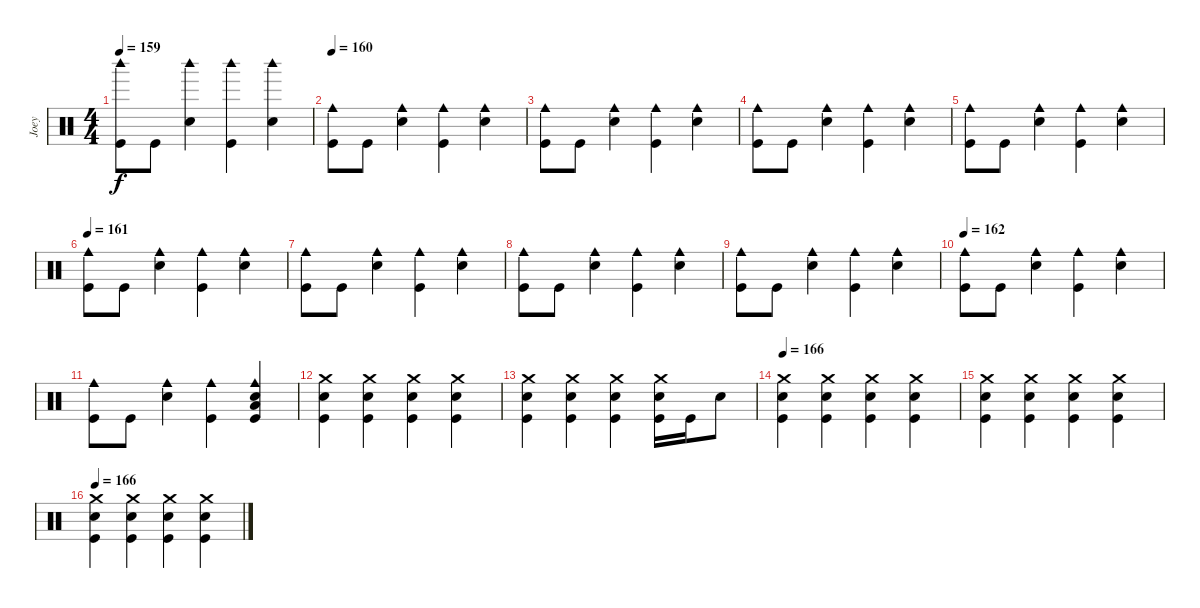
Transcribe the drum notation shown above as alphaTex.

\track ("Joey" "Joey") {instrument percussion}
\staff {score}
\articulation defaults
\ts (4 4)
\tempo 159
\clef neutral
\ks c
("Woodblock high (hit)" "Kick (hit)").8{dy f} "Kick (hit)".8 ("Woodblock high (hit)" "Electric Snare (hit)").4 ("Woodblock high (hit)" "Kick (hit)").4 ("Woodblock high (hit)" "Electric Snare (hit)").4 |
\tempo 160
("Cowbell medium (hit)" "Kick (hit)").8 "Kick (hit)".8 ("Cowbell medium (hit)" "Electric Snare (hit)").4 ("Cowbell medium (hit)" "Kick (hit)").4 ("Cowbell medium (hit)" "Electric Snare (hit)").4 |
("Cowbell medium (hit)" "Kick (hit)").8 "Kick (hit)".8 ("Cowbell medium (hit)" "Electric Snare (hit)").4 ("Cowbell medium (hit)" "Kick (hit)").4 ("Cowbell medium (hit)" "Electric Snare (hit)").4 |
("Cowbell medium (hit)" "Kick (hit)").8 "Kick (hit)".8 ("Cowbell medium (hit)" "Electric Snare (hit)").4 ("Cowbell medium (hit)" "Kick (hit)").4 ("Cowbell medium (hit)" "Electric Snare (hit)").4 |
("Cowbell medium (hit)" "Kick (hit)").8 "Kick (hit)".8 ("Cowbell medium (hit)" "Electric Snare (hit)").4 ("Cowbell medium (hit)" "Kick (hit)").4 ("Cowbell medium (hit)" "Electric Snare (hit)").4 |
\tempo 161
("Cowbell medium (hit)" "Kick (hit)").8 "Kick (hit)".8 ("Cowbell medium (hit)" "Electric Snare (hit)").4 ("Cowbell medium (hit)" "Kick (hit)").4 ("Cowbell medium (hit)" "Electric Snare (hit)").4 |
("Cowbell medium (hit)" "Kick (hit)").8 "Kick (hit)".8 ("Cowbell medium (hit)" "Electric Snare (hit)").4 ("Cowbell medium (hit)" "Kick (hit)").4 ("Cowbell medium (hit)" "Electric Snare (hit)").4 |
("Cowbell medium (hit)" "Kick (hit)").8 "Kick (hit)".8 ("Cowbell medium (hit)" "Electric Snare (hit)").4 ("Cowbell medium (hit)" "Kick (hit)").4 ("Cowbell medium (hit)" "Electric Snare (hit)").4 |
("Cowbell medium (hit)" "Kick (hit)").8 "Kick (hit)".8 ("Cowbell medium (hit)" "Electric Snare (hit)").4 ("Cowbell medium (hit)" "Kick (hit)").4 ("Cowbell medium (hit)" "Electric Snare (hit)").4 |
\tempo 162
("Cowbell medium (hit)" "Kick (hit)").8 "Kick (hit)".8 ("Cowbell medium (hit)" "Electric Snare (hit)").4 ("Cowbell medium (hit)" "Kick (hit)").4 ("Cowbell medium (hit)" "Electric Snare (hit)").4 |
("Cowbell medium (hit)" "Kick (hit)").8 "Kick (hit)".8 ("Cowbell medium (hit)" "Electric Snare (hit)").4 ("Cowbell medium (hit)" "Kick (hit)").4 ("Cowbell medium (hit)" "Low Floor Tom (hit)" "Electric Snare (hit)" "Kick (hit)").4 |
("Crash medium (hit)" "Kick (hit)" "Electric Snare (hit)").4 ("Crash medium (hit)" "Kick (hit)" "Electric Snare (hit)").4 ("Crash medium (hit)" "Kick (hit)" "Electric Snare (hit)").4 ("Crash medium (hit)" "Kick (hit)" "Electric Snare (hit)").4 |
("Crash medium (hit)" "Kick (hit)" "Electric Snare (hit)").4 ("Crash medium (hit)" "Kick (hit)" "Electric Snare (hit)").4 ("Crash medium (hit)" "Kick (hit)" "Electric Snare (hit)").4 ("Crash medium (hit)" "Kick (hit)" "Electric Snare (hit)").16 "Kick (hit)".16 "Electric Snare (hit)".8 |
\tempo 166
("Crash medium (hit)" "Kick (hit)" "Electric Snare (hit)").4 ("Crash medium (hit)" "Kick (hit)" "Electric Snare (hit)").4 ("Crash medium (hit)" "Kick (hit)" "Electric Snare (hit)").4 ("Crash medium (hit)" "Kick (hit)" "Electric Snare (hit)").4 |
("Crash medium (hit)" "Kick (hit)" "Electric Snare (hit)").4 ("Crash medium (hit)" "Kick (hit)" "Electric Snare (hit)").4 ("Crash medium (hit)" "Kick (hit)" "Electric Snare (hit)").4 ("Crash medium (hit)" "Kick (hit)" "Electric Snare (hit)").4 |
\tempo 166
("Crash medium (hit)" "Kick (hit)" "Electric Snare (hit)").4 ("Crash medium (hit)" "Kick (hit)" "Electric Snare (hit)").4 ("Crash medium (hit)" "Kick (hit)" "Electric Snare (hit)").4 ("Crash medium (hit)" "Kick (hit)" "Electric Snare (hit)").4
